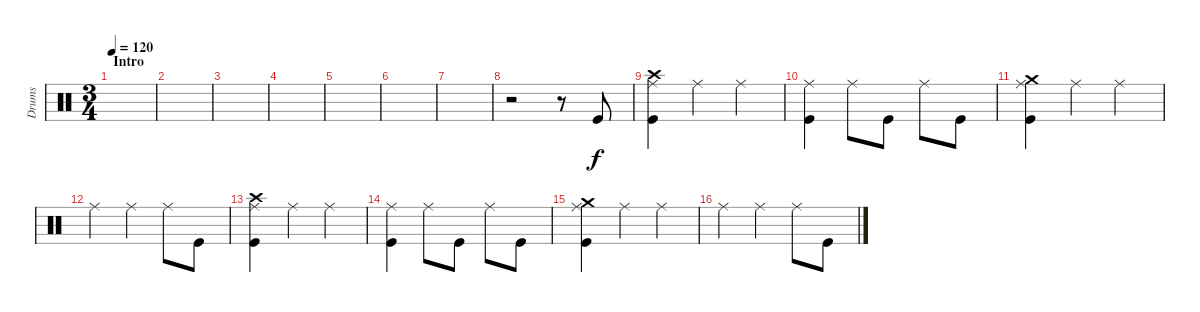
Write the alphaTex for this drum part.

\track ("Drums" "Drums") {instrument percussion}
\staff {score}
\articulation defaults
\ts (3 4)
\section ("" "Intro")
\tempo 120
\clef neutral
\ks c
|
|
|
|
|
|
|
r.2 r.8 "Kick (hit)".8 |
("Crash high (hit)" "Ride (middle)" "Kick (hit)").4 "Ride (middle)".4 "Ride (middle)".4 |
("Ride (middle)" "Kick (hit)").4 "Ride (middle)".8 "Kick (hit)".8 "Ride (middle)".8 "Kick (hit)".8 |
("Crash medium (hit)" "Ride (middle)" "Kick (hit)").4 "Ride (middle)".4 "Ride (middle)".4 |
"Ride (middle)".4 "Ride (middle)".4 "Ride (middle)".8 "Kick (hit)".8 |
("Crash high (hit)" "Ride (middle)" "Kick (hit)").4 "Ride (middle)".4 "Ride (middle)".4 |
("Ride (middle)" "Kick (hit)").4 "Ride (middle)".8 "Kick (hit)".8 "Ride (middle)".8 "Kick (hit)".8 |
("Crash medium (hit)" "Ride (middle)" "Kick (hit)").4 "Ride (middle)".4 "Ride (middle)".4 |
"Ride (middle)".4 "Ride (middle)".4 "Ride (middle)".8 "Kick (hit)".8
